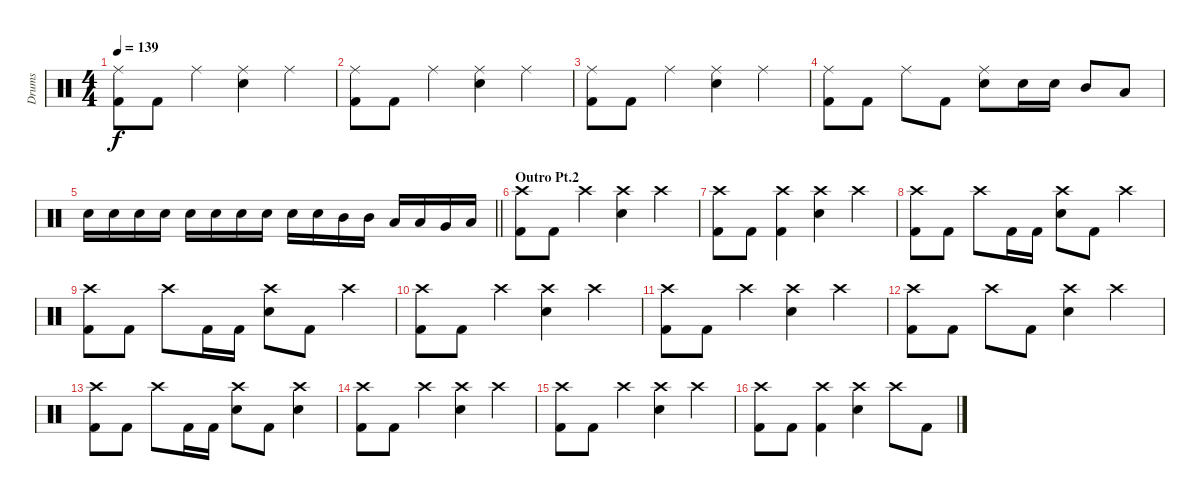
\track ("Drums" "Drums") {instrument percussion}
\staff {score}
\articulation defaults
\ts (4 4)
\tempo 139
\clef neutral
\ks c
("Ride (middle)" "Kick (hit) 2").8{dy f} "Kick (hit) 2".8 "Ride (middle)".4 ("Ride (middle)" "Electric Snare (hit)").4 "Ride (middle)".4 |
("Ride (middle)" "Kick (hit) 2").8 "Kick (hit) 2".8 "Ride (middle)".4 ("Ride (middle)" "Electric Snare (hit)").4 "Ride (middle)".4 |
("Ride (middle)" "Kick (hit) 2").8 "Kick (hit) 2".8 "Ride (middle)".4 ("Ride (middle)" "Electric Snare (hit)").4 "Ride (middle)".4 |
("Ride (middle)" "Kick (hit) 2").8 "Kick (hit) 2".8 "Ride (middle)".8 "Kick (hit) 2".8 ("Ride (middle)" "Electric Snare (hit)").8 "Electric Snare (hit)".16 "Electric Snare (hit)".16 "Mid Tom (hit)".8 "Low Tom (hit)".8 |
\barLineRight lightlight "Electric Snare (hit)".16 "Electric Snare (hit)".16 "Electric Snare (hit)".16 "Electric Snare (hit)".16 "Electric Snare (hit)".16 "Electric Snare (hit)".16 "Electric Snare (hit)".16 "Electric Snare (hit)".16 "Electric Snare (hit)".16 "Electric Snare (hit)".16 "Mid Tom (hit)".16 "Mid Tom (hit)".16 "Low Tom (hit)".16 "Low Tom (hit)".16 "Very Low Tom (hit)".16 "Low Floor Tom (hit)".16
|
\section ("" "Outro Pt.2")
("Crash high (hit)" "Kick (hit) 2").8{volume 14} "Kick (hit) 2".8 "Crash high (hit)".4 ("Crash high (hit)" "Electric Snare (hit)").4 "Crash high (hit)".4 |
("Crash high (hit)" "Kick (hit) 2").8 "Kick (hit) 2".8 ("Crash high (hit)" "Kick (hit) 2").4 ("Crash high (hit)" "Electric Snare (hit)").4 "Crash high (hit)".4 |
("Crash high (hit)" "Kick (hit) 2").8 "Kick (hit) 2".8 "Crash high (hit)".8 "Kick (hit) 2".16 "Kick (hit) 2".16 ("Crash high (hit)" "Electric Snare (hit)").8 "Kick (hit) 2".8 "Crash high (hit)".4 |
("Crash high (hit)" "Kick (hit) 2").8 "Kick (hit) 2".8 "Crash high (hit)".8 "Kick (hit) 2".16 "Kick (hit) 2".16 ("Crash high (hit)" "Electric Snare (hit)").8 "Kick (hit) 2".8 "Crash high (hit)".4 |
("Crash high (hit)" "Kick (hit) 2").8{volume 12} "Kick (hit) 2".8 "Crash high (hit)".4 ("Crash high (hit)" "Electric Snare (hit)").4 "Crash high (hit)".4 |
("Crash high (hit)" "Kick (hit) 2").8 "Kick (hit) 2".8 "Crash high (hit)".4 ("Crash high (hit)" "Electric Snare (hit)").4 "Crash high (hit)".4 |
("Crash high (hit)" "Kick (hit) 2").8 "Kick (hit) 2".8 "Crash high (hit)".8 "Kick (hit) 2".8 ("Crash high (hit)" "Electric Snare (hit)").4 "Crash high (hit)".4 |
("Crash high (hit)" "Kick (hit) 2").8 "Kick (hit) 2".8 "Crash high (hit)".8 "Kick (hit) 2".16 "Kick (hit) 2".16 ("Crash high (hit)" "Electric Snare (hit)").8 "Kick (hit) 2".8 ("Crash high (hit)" "Electric Snare (hit)").4 |
("Crash high (hit)" "Kick (hit) 2").8{volume 10} "Kick (hit) 2".8 "Crash high (hit)".4 ("Crash high (hit)" "Electric Snare (hit)").4 "Crash high (hit)".4 |
("Crash high (hit)" "Kick (hit) 2").8 "Kick (hit) 2".8 "Crash high (hit)".4 ("Crash high (hit)" "Electric Snare (hit)").4 "Crash high (hit)".4 |
("Crash high (hit)" "Kick (hit) 2").8 "Kick (hit) 2".8 ("Crash high (hit)" "Kick (hit) 2").4 ("Crash high (hit)" "Electric Snare (hit)").4 "Crash high (hit)".8 "Kick (hit) 2".8
